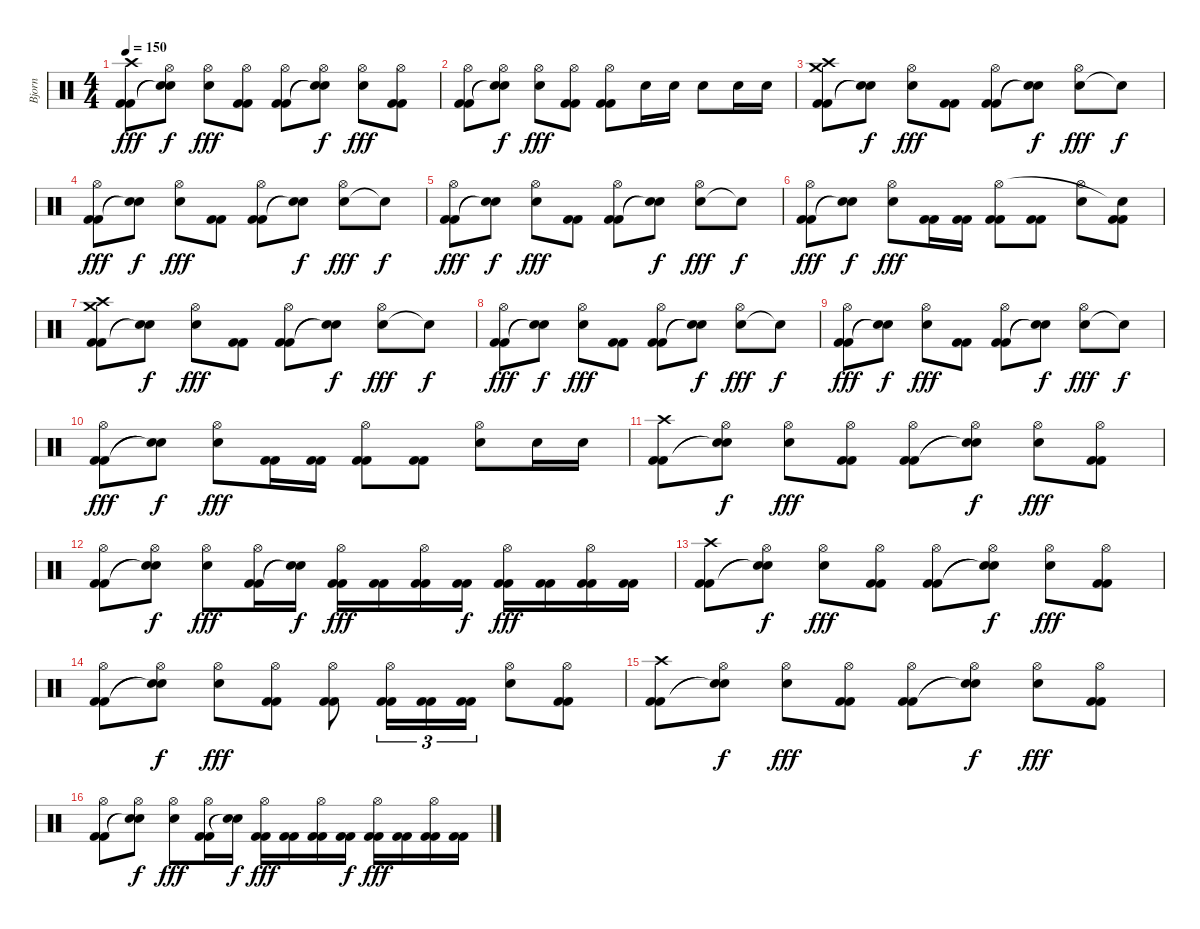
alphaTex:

\track ("Bjorn" "Bjorn") {instrument percussion}
\staff {score}
\articulation defaults
\ts (4 4)
\tempo 150
\clef neutral
\ks c
("Kick (hit) 2" "Kick (hit) 2" "Crash high (hit)").8{dy fff} ("Snare (hit)"{t} "Snare (hit)"{t} "Hi-Hat (open)").8{dy f} ("Snare (hit) 2" "Hi-Hat (open)").8{dy fff} ("Kick (hit) 2" "Kick (hit) 2" "Hi-Hat (open)").8 ("Kick (hit) 2" "Kick (hit) 2" "Hi-Hat (open)").8 ("Snare (hit)"{t} "Snare (hit)"{t} "Hi-Hat (open)").8{dy f} ("Snare (hit) 2" "Hi-Hat (open)").8{dy fff} ("Kick (hit) 2" "Kick (hit) 2" "Hi-Hat (open)").8 |
("Kick (hit) 2" "Kick (hit) 2" "Hi-Hat (open)").8 ("Snare (hit)"{t} "Snare (hit)"{t} "Hi-Hat (open)").8{dy f} ("Snare (hit) 2" "Hi-Hat (open)").8{dy fff} ("Kick (hit) 2" "Kick (hit) 2" "Hi-Hat (open)").8 ("Kick (hit) 2" "Kick (hit) 2" "Hi-Hat (open)").8 "Snare (hit) 2".16 "Snare (hit) 2".16 "Snare (hit) 2".8 "Snare (hit) 2".16 "Snare (hit) 2".16 |
("Kick (hit) 2" "Kick (hit) 2" "Crash high (hit)" "Crash medium (hit)").8 ("Snare (hit)"{t} "Snare (hit)"{t}).8{dy f} ("Snare (hit) 2" "Hi-Hat (open)").8{dy fff} ("Kick (hit) 2" "Kick (hit) 2").8 ("Kick (hit) 2" "Kick (hit) 2" "Hi-Hat (open)").8 ("Snare (hit)"{t} "Snare (hit)"{t}).8{dy f} ("Snare (hit) 2" "Hi-Hat (open)").8{dy fff} "Snare (hit)"{t}.8{dy f} |
("Kick (hit) 2" "Kick (hit) 2" "Hi-Hat (open)").8{dy fff} ("Snare (hit)"{t} "Snare (hit)"{t}).8{dy f} ("Snare (hit) 2" "Hi-Hat (open)").8{dy fff} ("Kick (hit) 2" "Kick (hit) 2").8 ("Kick (hit) 2" "Kick (hit) 2" "Hi-Hat (open)").8 ("Snare (hit)"{t} "Snare (hit)"{t}).8{dy f} ("Snare (hit) 2" "Hi-Hat (open)").8{dy fff} "Snare (hit)"{t}.8{dy f} |
("Kick (hit) 2" "Kick (hit) 2" "Hi-Hat (open)").8{dy fff} ("Snare (hit)"{t} "Snare (hit)"{t}).8{dy f} ("Snare (hit) 2" "Hi-Hat (open)").8{dy fff} ("Kick (hit) 2" "Kick (hit) 2").8 ("Kick (hit) 2" "Kick (hit) 2" "Hi-Hat (open)").8 ("Snare (hit)"{t} "Snare (hit)"{t}).8{dy f} ("Snare (hit) 2" "Hi-Hat (open)").8{dy fff} "Snare (hit)"{t}.8{dy f} |
("Kick (hit) 2" "Kick (hit) 2" "Hi-Hat (open)").8{dy fff} ("Snare (hit)"{t} "Snare (hit)"{t}).8{dy f} ("Snare (hit) 2" "Hi-Hat (open)").8{dy fff} ("Kick (hit) 2" "Kick (hit) 2").16 ("Kick (hit) 2" "Kick (hit) 2").16 ("Kick (hit) 2" "Kick (hit) 2" "Hi-Hat (open)").8 ("Kick (hit) 2" "Kick (hit) 2").8 ("Snare (hit) 2" "Hi-Hat (open)").8 ("Kick (hit) 2" "Kick (hit) 2" "Snare (hit)"{t}).8 |
("Kick (hit) 2" "Kick (hit) 2" "Crash high (hit)" "Crash medium (hit)").8 ("Snare (hit)"{t} "Snare (hit)"{t}).8{dy f} ("Snare (hit) 2" "Hi-Hat (open)").8{dy fff} ("Kick (hit) 2" "Kick (hit) 2").8 ("Kick (hit) 2" "Kick (hit) 2" "Hi-Hat (open)").8 ("Snare (hit)"{t} "Snare (hit)"{t}).8{dy f} ("Snare (hit) 2" "Hi-Hat (open)").8{dy fff} "Snare (hit)"{t}.8{dy f} |
("Kick (hit) 2" "Kick (hit) 2" "Hi-Hat (open)").8{dy fff} ("Snare (hit)"{t} "Snare (hit)"{t}).8{dy f} ("Snare (hit) 2" "Hi-Hat (open)").8{dy fff} ("Kick (hit) 2" "Kick (hit) 2").8 ("Kick (hit) 2" "Kick (hit) 2" "Hi-Hat (open)").8 ("Snare (hit)"{t} "Snare (hit)"{t}).8{dy f} ("Snare (hit) 2" "Hi-Hat (open)").8{dy fff} "Snare (hit)"{t}.8{dy f} |
("Kick (hit) 2" "Kick (hit) 2" "Hi-Hat (open)").8{dy fff} ("Snare (hit)"{t} "Snare (hit)"{t}).8{dy f} ("Snare (hit) 2" "Hi-Hat (open)").8{dy fff} ("Kick (hit) 2" "Kick (hit) 2").8 ("Kick (hit) 2" "Kick (hit) 2" "Hi-Hat (open)").8 ("Snare (hit)"{t} "Snare (hit)"{t}).8{dy f} ("Snare (hit) 2" "Hi-Hat (open)").8{dy fff} "Snare (hit)"{t}.8{dy f} |
("Kick (hit) 2" "Kick (hit) 2" "Hi-Hat (open)").8{dy fff} ("Snare (hit)"{t} "Snare (hit)"{t}).8{dy f} ("Snare (hit) 2" "Hi-Hat (open)").8{dy fff} ("Kick (hit) 2" "Kick (hit) 2").16 ("Kick (hit) 2" "Kick (hit) 2").16 ("Kick (hit) 2" "Kick (hit) 2" "Hi-Hat (open)").8 ("Kick (hit) 2" "Kick (hit) 2").8 ("Snare (hit) 2" "Hi-Hat (open)").8 "Snare (hit) 2".16 "Snare (hit) 2".16 |
("Kick (hit) 2" "Kick (hit) 2" "Crash high (hit)").8 ("Snare (hit)"{t} "Snare (hit)"{t} "Hi-Hat (open)").8{dy f} ("Snare (hit) 2" "Hi-Hat (open)").8{dy fff} ("Kick (hit) 2" "Kick (hit) 2" "Hi-Hat (open)").8 ("Kick (hit) 2" "Kick (hit) 2" "Hi-Hat (open)").8 ("Snare (hit)"{t} "Snare (hit)"{t} "Hi-Hat (open)").8{dy f} ("Snare (hit) 2" "Hi-Hat (open)").8{dy fff} ("Kick (hit) 2" "Kick (hit) 2" "Hi-Hat (open)").8 |
("Kick (hit) 2" "Kick (hit) 2" "Hi-Hat (open)").8 ("Snare (hit)"{t} "Snare (hit)"{t} "Hi-Hat (open)").8{dy f} ("Snare (hit) 2" "Hi-Hat (open)").8{dy fff} ("Kick (hit) 2" "Kick (hit) 2" "Hi-Hat (open)").16 ("Snare (hit)"{t} "Snare (hit)"{t}).16{dy f} ("Kick (hit) 2" "Kick (hit) 2" "Hi-Hat (open)").16{dy fff} ("Kick (hit) 2" "Kick (hit) 2").16 ("Kick (hit) 2" "Kick (hit) 2" "Hi-Hat (open)").16 ("Kick (hit) 2" "Kick (hit) 2").16{dy f} ("Kick (hit) 2" "Kick (hit) 2" "Hi-Hat (open)").16{dy fff} ("Kick (hit) 2" "Kick (hit) 2").16 ("Kick (hit) 2" "Kick (hit) 2" "Hi-Hat (open)").16 ("Kick (hit) 2" "Kick (hit) 2").16 |
("Kick (hit) 2" "Kick (hit) 2" "Crash high (hit)").8 ("Snare (hit)"{t} "Snare (hit)"{t} "Hi-Hat (open)").8{dy f} ("Snare (hit) 2" "Hi-Hat (open)").8{dy fff} ("Kick (hit) 2" "Kick (hit) 2" "Hi-Hat (open)").8 ("Kick (hit) 2" "Kick (hit) 2" "Hi-Hat (open)").8 ("Snare (hit)"{t} "Snare (hit)"{t} "Hi-Hat (open)").8{dy f} ("Snare (hit) 2" "Hi-Hat (open)").8{dy fff} ("Kick (hit) 2" "Kick (hit) 2" "Hi-Hat (open)").8 |
("Kick (hit) 2" "Kick (hit) 2" "Hi-Hat (open)").8 ("Snare (hit)"{t} "Snare (hit)"{t} "Hi-Hat (open)").8{dy f} ("Snare (hit) 2" "Hi-Hat (open)").8{dy fff} ("Kick (hit) 2" "Kick (hit) 2" "Hi-Hat (open)").8 ("Kick (hit) 2" "Kick (hit) 2" "Hi-Hat (open)").8 ("Kick (hit) 2" "Kick (hit) 2" "Hi-Hat (open)").16{tu (3 2)} ("Kick (hit) 2" "Kick (hit) 2").16{tu (3 2)} ("Kick (hit) 2" "Kick (hit) 2").16{tu (3 2)} ("Snare (hit) 2" "Hi-Hat (open)").8 ("Kick (hit) 2" "Kick (hit) 2" "Hi-Hat (open)").8 |
("Kick (hit) 2" "Kick (hit) 2" "Crash high (hit)").8 ("Snare (hit)"{t} "Snare (hit)"{t} "Hi-Hat (open)").8{dy f} ("Snare (hit) 2" "Hi-Hat (open)").8{dy fff} ("Kick (hit) 2" "Kick (hit) 2" "Hi-Hat (open)").8 ("Kick (hit) 2" "Kick (hit) 2" "Hi-Hat (open)").8 ("Snare (hit)"{t} "Snare (hit)"{t} "Hi-Hat (open)").8{dy f} ("Snare (hit) 2" "Hi-Hat (open)").8{dy fff} ("Kick (hit) 2" "Kick (hit) 2" "Hi-Hat (open)").8 |
("Kick (hit) 2" "Kick (hit) 2" "Hi-Hat (open)").8 ("Snare (hit)"{t} "Snare (hit)"{t} "Hi-Hat (open)").8{dy f} ("Snare (hit) 2" "Hi-Hat (open)").8{dy fff} ("Kick (hit) 2" "Kick (hit) 2" "Hi-Hat (open)").16 ("Snare (hit)"{t} "Snare (hit)"{t}).16{dy f} ("Kick (hit) 2" "Kick (hit) 2" "Hi-Hat (open)").16{dy fff} ("Kick (hit) 2" "Kick (hit) 2").16 ("Kick (hit) 2" "Kick (hit) 2" "Hi-Hat (open)").16 ("Kick (hit) 2" "Kick (hit) 2").16{dy f} ("Kick (hit) 2" "Kick (hit) 2" "Hi-Hat (open)").16{dy fff} ("Kick (hit) 2" "Kick (hit) 2").16 ("Kick (hit) 2" "Kick (hit) 2" "Hi-Hat (open)").16 ("Kick (hit) 2" "Kick (hit) 2").16
